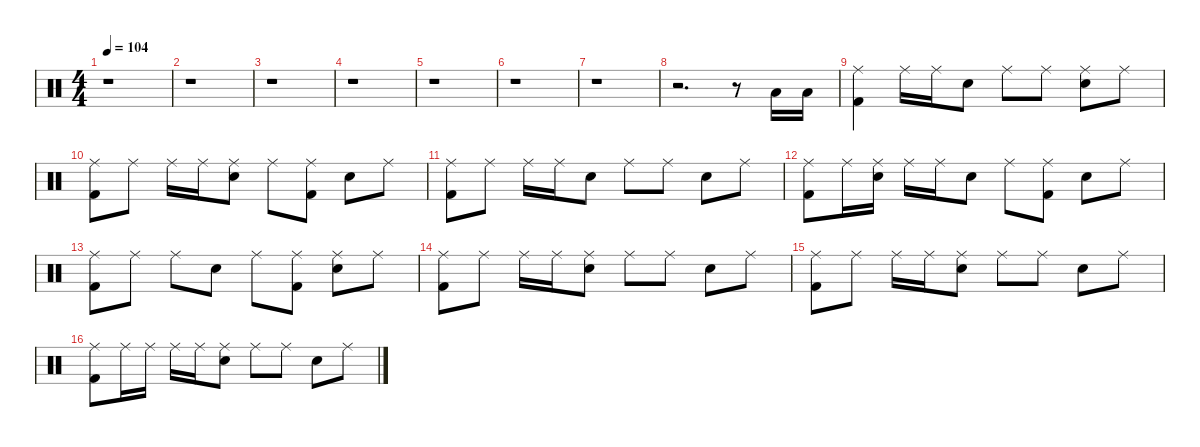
\defaultSystemsLayout 4
\hideDynamics
\bracketExtendMode nobrackets
\singleTrackTrackNamePolicy hidden
\multiTrackTrackNamePolicy hidden
\firstSystemTrackNameMode fullname
\firstSystemTrackNameOrientation horizontal
\otherSystemsTrackNameOrientation horizontal
\track ("Drums" "drm.") {instrument percussion}
\staff {score}
\articulation defaults
\ts (4 4)
\beaming (8 2 2 2 2)
\tempo 104
\clef neutral
\ks c
r.1{dy fff beam Down} |
r.1{beam Down} |
r.1{beam Down} |
r.1{beam Down} |
r.1{beam Down} |
r.1{beam Down} |
r.1{beam Down} |
r.2{d beam Down} r.8{beam Down} "Low Tom (hit)".16{beam Up} "Low Tom (hit)".16{beam Up} |
("Ride (middle)" "Kick (hit) 2").4{dy ff beam Down} "Ride (middle)".16{beam Down} "Ride (middle)".16{beam Down} "Snare (hit) 2".8{beam Down} "Ride (middle)".8{beam Down} "Ride (middle)".8{beam Down} ("Ride (middle)" "Snare (hit) 2").8{beam Down} "Ride (middle)".8{beam Down} |
("Ride (middle)" "Kick (hit) 2").8{beam Down} "Ride (middle)".8{beam Down} "Ride (middle)".16{beam Down} "Ride (middle)".16{beam Down} ("Ride (middle)" "Snare (hit) 2").8{beam Down} "Ride (middle)".8{beam Down} ("Ride (middle)" "Kick (hit) 2").8{beam Down} "Snare (hit) 2".8{dy fff beam Down} "Ride (middle)".8{dy ff beam Down} |
("Ride (middle)" "Kick (hit) 2").8{beam Down} "Ride (middle)".8{beam Down} "Ride (middle)".16{beam Down} "Ride (middle)".16{beam Down} "Snare (hit) 2".8{dy fff beam Down} "Ride (middle)".8{dy ff beam Down} "Ride (middle)".8{beam Down} "Snare (hit) 2".8{dy fff beam Down} "Ride (middle)".8{dy ff beam Down} |
("Ride (middle)" "Kick (hit) 2").8{beam Down} "Ride (middle)".16{beam Down} ("Ride (middle)" "Snare (hit) 2").16{beam Down} "Ride (middle)".16{beam Down} "Ride (middle)".16{beam Down} "Snare (hit) 2".8{dy fff beam Down} "Ride (middle)".8{dy ff beam Down} ("Ride (middle)" "Kick (hit) 2").8{beam Down} "Snare (hit) 2".8{dy fff beam Down} "Ride (middle)".8{dy ff beam Down} |
("Ride (middle)" "Kick (hit) 2").8{beam Down} "Ride (middle)".8{beam Down} "Ride (middle)".8{beam Down} "Snare (hit) 2".8{dy fff beam Down} "Ride (middle)".8{dy ff beam Down} ("Ride (middle)" "Kick (hit) 2").8{beam Down} ("Ride (middle)" "Snare (hit) 2").8{beam Down} "Ride (middle)".8{beam Down} |
("Ride (middle)" "Kick (hit) 2").8{beam Down} "Ride (middle)".8{beam Down} "Ride (middle)".16{beam Down} "Ride (middle)".16{beam Down} ("Ride (middle)" "Snare (hit) 2").8{beam Down} "Ride (middle)".8{beam Down} "Ride (middle)".8{beam Down} "Snare (hit) 2".8{dy fff beam Down} "Ride (middle)".8{dy ff beam Down} |
("Ride (middle)" "Kick (hit) 2").8{beam Down} "Ride (middle)".8{beam Down} "Ride (middle)".16{beam Down} "Ride (middle)".16{beam Down} ("Ride (middle)" "Snare (hit) 2").8{beam Down} "Ride (middle)".8{beam Down} "Ride (middle)".8{beam Down} "Snare (hit) 2".8{dy fff beam Down} "Ride (middle)".8{dy ff beam Down} |
("Ride (middle)" "Kick (hit) 2").8{beam Down} "Ride (middle)".16{beam Down} "Ride (middle)".16{beam Down} "Ride (middle)".16{beam Down} "Ride (middle)".16{beam Down} ("Ride (middle)" "Snare (hit) 2").8{beam Down} "Ride (middle)".8{beam Down} "Ride (middle)".8{beam Down} "Snare (hit) 2".8{dy fff beam Down} "Ride (middle)".8{dy ff beam Down}
